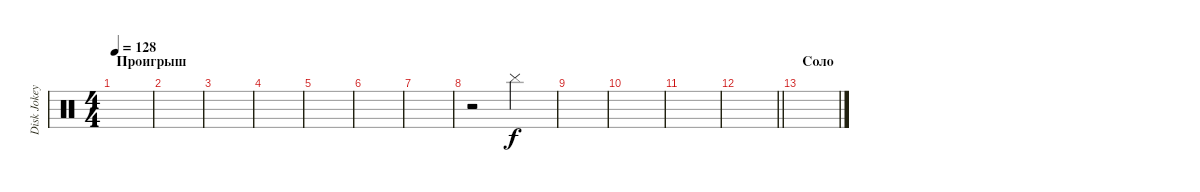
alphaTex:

\track ("Disk Jokey" "Disk Jokey") {instrument percussion}
\staff {score}
\articulation defaults
\ts (4 4)
\section ("" "Проигрыш")
\tempo 128
\clef neutral
\ks c
|
|
|
|
|
|
|
r.2 "Cymbal (hit)".2 |
|
|
|
\barLineRight lightlight
|
\section ("" "Соло")
